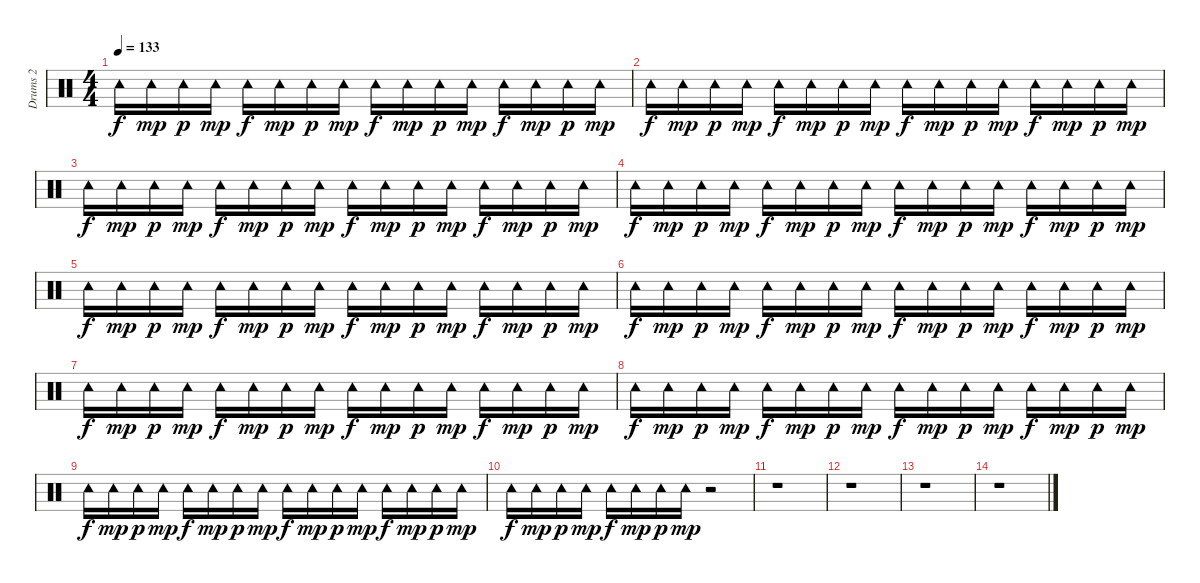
\track ("Drums 2" "Drums 2") {instrument percussion}
\staff {score}
\articulation defaults
\ts (4 4)
\tempo 133
\clef neutral
\ks c "Tambourine (hit)".16{dy f} "Tambourine (hit)".16{dy mp} "Tambourine (hit)".16{dy p} "Tambourine (hit)".16{dy mp} "Tambourine (hit)".16{dy f} "Tambourine (hit)".16{dy mp} "Tambourine (hit)".16{dy p} "Tambourine (hit)".16{dy mp} "Tambourine (hit)".16{dy f} "Tambourine (hit)".16{dy mp} "Tambourine (hit)".16{dy p} "Tambourine (hit)".16{dy mp} "Tambourine (hit)".16{dy f} "Tambourine (hit)".16{dy mp} "Tambourine (hit)".16{dy p} "Tambourine (hit)".16{dy mp}
|
"Tambourine (hit)".16{dy f} "Tambourine (hit)".16{dy mp} "Tambourine (hit)".16{dy p} "Tambourine (hit)".16{dy mp} "Tambourine (hit)".16{dy f} "Tambourine (hit)".16{dy mp} "Tambourine (hit)".16{dy p} "Tambourine (hit)".16{dy mp} "Tambourine (hit)".16{dy f} "Tambourine (hit)".16{dy mp} "Tambourine (hit)".16{dy p} "Tambourine (hit)".16{dy mp} "Tambourine (hit)".16{dy f} "Tambourine (hit)".16{dy mp} "Tambourine (hit)".16{dy p} "Tambourine (hit)".16{dy mp} |
"Tambourine (hit)".16{dy f} "Tambourine (hit)".16{dy mp} "Tambourine (hit)".16{dy p} "Tambourine (hit)".16{dy mp} "Tambourine (hit)".16{dy f} "Tambourine (hit)".16{dy mp} "Tambourine (hit)".16{dy p} "Tambourine (hit)".16{dy mp} "Tambourine (hit)".16{dy f} "Tambourine (hit)".16{dy mp} "Tambourine (hit)".16{dy p} "Tambourine (hit)".16{dy mp} "Tambourine (hit)".16{dy f} "Tambourine (hit)".16{dy mp} "Tambourine (hit)".16{dy p} "Tambourine (hit)".16{dy mp} |
"Tambourine (hit)".16{dy f} "Tambourine (hit)".16{dy mp} "Tambourine (hit)".16{dy p} "Tambourine (hit)".16{dy mp} "Tambourine (hit)".16{dy f} "Tambourine (hit)".16{dy mp} "Tambourine (hit)".16{dy p} "Tambourine (hit)".16{dy mp} "Tambourine (hit)".16{dy f} "Tambourine (hit)".16{dy mp} "Tambourine (hit)".16{dy p} "Tambourine (hit)".16{dy mp} "Tambourine (hit)".16{dy f} "Tambourine (hit)".16{dy mp} "Tambourine (hit)".16{dy p} "Tambourine (hit)".16{dy mp} |
"Tambourine (hit)".16{dy f} "Tambourine (hit)".16{dy mp} "Tambourine (hit)".16{dy p} "Tambourine (hit)".16{dy mp} "Tambourine (hit)".16{dy f} "Tambourine (hit)".16{dy mp} "Tambourine (hit)".16{dy p} "Tambourine (hit)".16{dy mp} "Tambourine (hit)".16{dy f} "Tambourine (hit)".16{dy mp} "Tambourine (hit)".16{dy p} "Tambourine (hit)".16{dy mp} "Tambourine (hit)".16{dy f} "Tambourine (hit)".16{dy mp} "Tambourine (hit)".16{dy p} "Tambourine (hit)".16{dy mp} |
"Tambourine (hit)".16{dy f} "Tambourine (hit)".16{dy mp} "Tambourine (hit)".16{dy p} "Tambourine (hit)".16{dy mp} "Tambourine (hit)".16{dy f} "Tambourine (hit)".16{dy mp} "Tambourine (hit)".16{dy p} "Tambourine (hit)".16{dy mp} "Tambourine (hit)".16{dy f} "Tambourine (hit)".16{dy mp} "Tambourine (hit)".16{dy p} "Tambourine (hit)".16{dy mp} "Tambourine (hit)".16{dy f} "Tambourine (hit)".16{dy mp} "Tambourine (hit)".16{dy p} "Tambourine (hit)".16{dy mp} |
"Tambourine (hit)".16{dy f} "Tambourine (hit)".16{dy mp} "Tambourine (hit)".16{dy p} "Tambourine (hit)".16{dy mp} "Tambourine (hit)".16{dy f} "Tambourine (hit)".16{dy mp} "Tambourine (hit)".16{dy p} "Tambourine (hit)".16{dy mp} "Tambourine (hit)".16{dy f} "Tambourine (hit)".16{dy mp} "Tambourine (hit)".16{dy p} "Tambourine (hit)".16{dy mp} "Tambourine (hit)".16{dy f} "Tambourine (hit)".16{dy mp} "Tambourine (hit)".16{dy p} "Tambourine (hit)".16{dy mp} |
"Tambourine (hit)".16{dy f} "Tambourine (hit)".16{dy mp} "Tambourine (hit)".16{dy p} "Tambourine (hit)".16{dy mp} "Tambourine (hit)".16{dy f} "Tambourine (hit)".16{dy mp} "Tambourine (hit)".16{dy p} "Tambourine (hit)".16{dy mp} "Tambourine (hit)".16{dy f} "Tambourine (hit)".16{dy mp} "Tambourine (hit)".16{dy p} "Tambourine (hit)".16{dy mp} "Tambourine (hit)".16{dy f} "Tambourine (hit)".16{dy mp} "Tambourine (hit)".16{dy p} "Tambourine (hit)".16{dy mp} |
"Tambourine (hit)".16{dy f} "Tambourine (hit)".16{dy mp} "Tambourine (hit)".16{dy p} "Tambourine (hit)".16{dy mp} "Tambourine (hit)".16{dy f} "Tambourine (hit)".16{dy mp} "Tambourine (hit)".16{dy p} "Tambourine (hit)".16{dy mp} "Tambourine (hit)".16{dy f} "Tambourine (hit)".16{dy mp} "Tambourine (hit)".16{dy p} "Tambourine (hit)".16{dy mp} "Tambourine (hit)".16{dy f} "Tambourine (hit)".16{dy mp} "Tambourine (hit)".16{dy p} "Tambourine (hit)".16{dy mp} |
"Tambourine (hit)".16{dy f} "Tambourine (hit)".16{dy mp} "Tambourine (hit)".16{dy p} "Tambourine (hit)".16{dy mp} "Tambourine (hit)".16{dy f} "Tambourine (hit)".16{dy mp} "Tambourine (hit)".16{dy p} "Tambourine (hit)".16{dy mp} r.2 |
r.1 |
r.1 |
r.1 |
r.1
